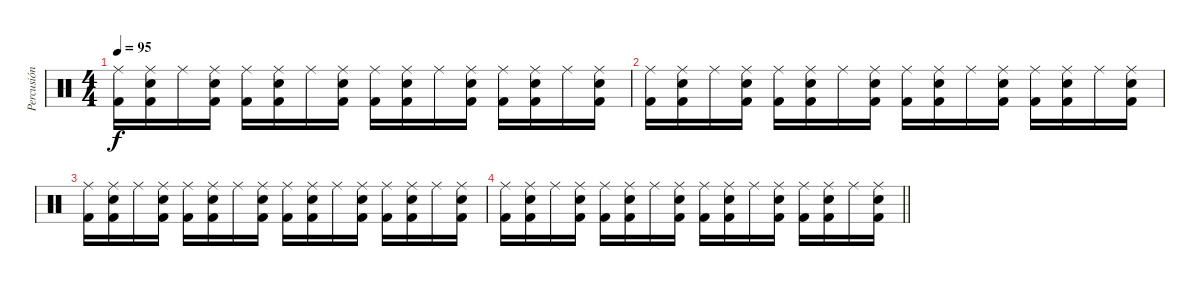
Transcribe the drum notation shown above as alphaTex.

\track ("Percusión" "Percusión") {instrument percussion}
\staff {score}
\articulation defaults
\ts (4 4)
\tempo 95
\clef neutral
\ks c
("Ride (middle)" "Kick (hit) 2").16{dy f} ("Ride (middle)" "Snare (hit) 2" "Kick (hit) 2").16 "Ride (middle)".16 ("Ride (middle)" "Snare (hit) 2" "Kick (hit) 2").16 ("Ride (middle)" "Kick (hit) 2").16 ("Ride (middle)" "Snare (hit) 2" "Kick (hit) 2").16 "Ride (middle)".16 ("Ride (middle)" "Snare (hit) 2" "Kick (hit) 2").16 ("Ride (middle)" "Kick (hit) 2").16 ("Ride (middle)" "Snare (hit) 2" "Kick (hit) 2").16 "Ride (middle)".16 ("Ride (middle)" "Snare (hit) 2" "Kick (hit) 2").16 ("Ride (middle)" "Kick (hit) 2").16 ("Ride (middle)" "Snare (hit) 2" "Kick (hit) 2").16 "Ride (middle)".16 ("Ride (middle)" "Snare (hit) 2" "Kick (hit) 2").16 |
("Ride (middle)" "Kick (hit) 2").16 ("Ride (middle)" "Snare (hit) 2" "Kick (hit) 2").16 "Ride (middle)".16 ("Ride (middle)" "Snare (hit) 2" "Kick (hit) 2").16 ("Ride (middle)" "Kick (hit) 2").16 ("Ride (middle)" "Snare (hit) 2" "Kick (hit) 2").16 "Ride (middle)".16 ("Ride (middle)" "Snare (hit) 2" "Kick (hit) 2").16 ("Ride (middle)" "Kick (hit) 2").16 ("Ride (middle)" "Snare (hit) 2" "Kick (hit) 2").16 "Ride (middle)".16 ("Ride (middle)" "Snare (hit) 2" "Kick (hit) 2").16 ("Ride (middle)" "Kick (hit) 2").16 ("Ride (middle)" "Snare (hit) 2" "Kick (hit) 2").16 "Ride (middle)".16 ("Ride (middle)" "Snare (hit) 2" "Kick (hit) 2").16 |
("Ride (middle)" "Kick (hit) 2").16 ("Ride (middle)" "Snare (hit) 2" "Kick (hit) 2").16 "Ride (middle)".16 ("Ride (middle)" "Snare (hit) 2" "Kick (hit) 2").16 ("Ride (middle)" "Kick (hit) 2").16 ("Ride (middle)" "Snare (hit) 2" "Kick (hit) 2").16 "Ride (middle)".16 ("Ride (middle)" "Snare (hit) 2" "Kick (hit) 2").16 ("Ride (middle)" "Kick (hit) 2").16 ("Ride (middle)" "Snare (hit) 2" "Kick (hit) 2").16 "Ride (middle)".16 ("Ride (middle)" "Snare (hit) 2" "Kick (hit) 2").16 ("Ride (middle)" "Kick (hit) 2").16 ("Ride (middle)" "Snare (hit) 2" "Kick (hit) 2").16 "Ride (middle)".16 ("Ride (middle)" "Snare (hit) 2" "Kick (hit) 2").16 |
\barLineRight lightlight
("Ride (middle)" "Kick (hit) 2").16 ("Ride (middle)" "Snare (hit) 2" "Kick (hit) 2").16 "Ride (middle)".16 ("Ride (middle)" "Snare (hit) 2" "Kick (hit) 2").16 ("Ride (middle)" "Kick (hit) 2").16 ("Ride (middle)" "Snare (hit) 2" "Kick (hit) 2").16 "Ride (middle)".16 ("Ride (middle)" "Snare (hit) 2" "Kick (hit) 2").16 ("Ride (middle)" "Kick (hit) 2").16 ("Ride (middle)" "Snare (hit) 2" "Kick (hit) 2").16 "Ride (middle)".16 ("Ride (middle)" "Snare (hit) 2" "Kick (hit) 2").16 ("Ride (middle)" "Kick (hit) 2").16 ("Ride (middle)" "Snare (hit) 2" "Kick (hit) 2").16 "Ride (middle)".16 ("Ride (middle)" "Snare (hit) 2" "Kick (hit) 2").16
